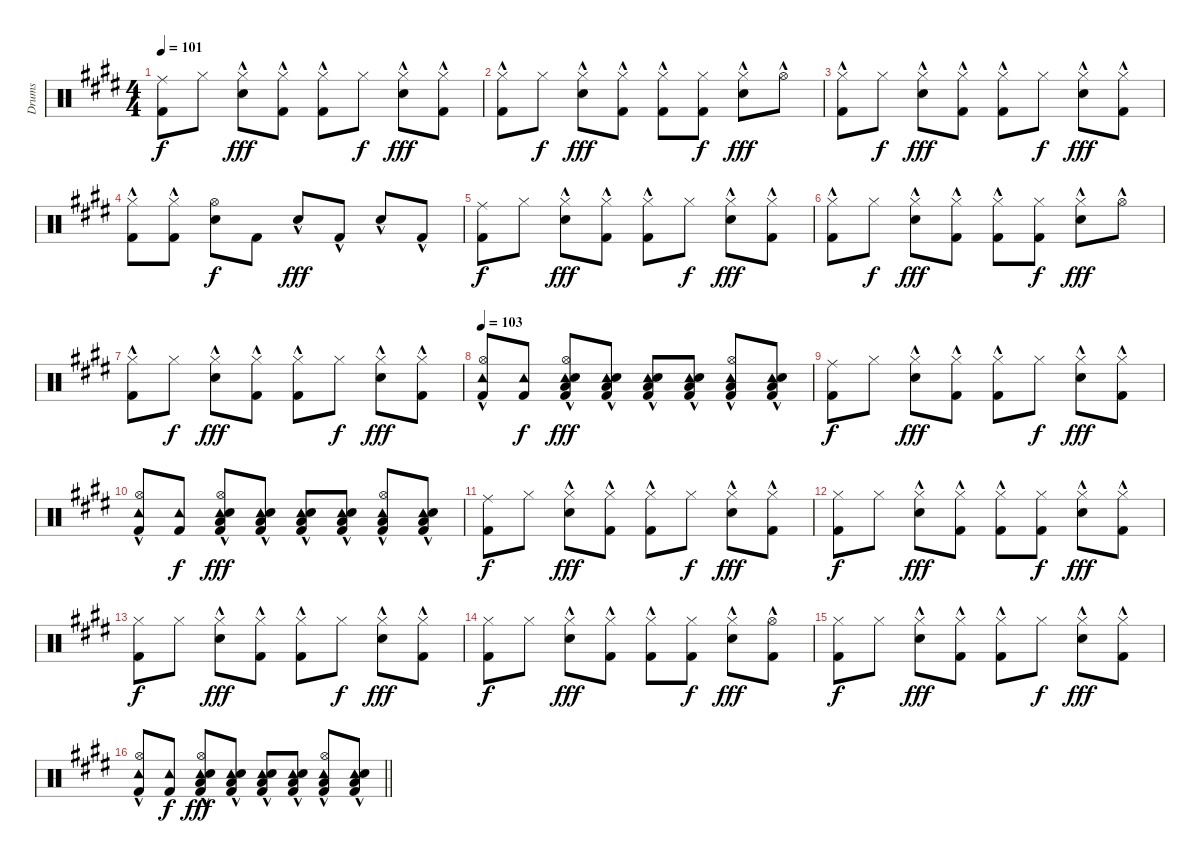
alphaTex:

\track ("Drums" "Drums") {instrument percussion}
\staff {score}
\articulation defaults
\ts (4 4)
\tempo 101
\clef neutral
\ks e
("Ride (middle)" "Kick (hit) 2").8{dy f} "Hi-Hat (closed)".8 ("Hi-Hat (closed)"{hac} "Snare (hit) 2").8{dy fff} ("Hi-Hat (closed)"{hac} "Kick (hit) 2").8 ("Hi-Hat (closed)"{hac} "Kick (hit) 2").8 "Hi-Hat (closed)".8{dy f} ("Hi-Hat (closed)"{hac} "Snare (hit) 2").8{dy fff} ("Hi-Hat (closed)"{hac} "Kick (hit) 2").8 |
("Hi-Hat (closed)"{hac} "Kick (hit) 2").8 "Hi-Hat (closed)".8{dy f} ("Hi-Hat (closed)"{hac} "Snare (hit) 2").8{dy fff} ("Hi-Hat (closed)"{hac} "Kick (hit) 2").8 ("Hi-Hat (closed)"{hac} "Kick (hit) 2").8 ("Hi-Hat (closed)" "Kick (hit) 2").8{dy f} ("Hi-Hat (closed)"{hac} "Snare (hit) 2").8{dy fff} "Hi-Hat (open)"{hac}.8 |
("Hi-Hat (closed)"{hac} "Kick (hit) 2").8 "Hi-Hat (closed)".8{dy f} ("Hi-Hat (closed)"{hac} "Snare (hit) 2").8{dy fff} ("Hi-Hat (closed)"{hac} "Kick (hit) 2").8 ("Hi-Hat (closed)"{hac} "Kick (hit) 2").8 "Hi-Hat (closed)".8{dy f} ("Hi-Hat (closed)"{hac} "Snare (hit) 2").8{dy fff} ("Hi-Hat (closed)"{hac} "Kick (hit) 2").8 |
("Hi-Hat (closed)"{hac} "Kick (hit) 2").8 ("Hi-Hat (closed)"{hac} "Kick (hit) 2").8 ("Hi-Hat (open)" "Snare (hit) 2").8{dy f} "Kick (hit) 2".8 "Snare (hit) 2"{hac}.8{dy fff} "Kick (hit) 2"{hac}.8 "Snare (hit) 2"{hac}.8 "Kick (hit) 2"{hac}.8 |
("Ride (middle)" "Kick (hit) 2").8{dy f} "Hi-Hat (closed)".8 ("Hi-Hat (closed)"{hac} "Snare (hit) 2").8{dy fff} ("Hi-Hat (closed)"{hac} "Kick (hit) 2").8 ("Hi-Hat (closed)"{hac} "Kick (hit) 2").8 "Hi-Hat (closed)".8{dy f} ("Hi-Hat (closed)"{hac} "Snare (hit) 2").8{dy fff} ("Hi-Hat (closed)"{hac} "Kick (hit) 2").8 |
("Hi-Hat (closed)"{hac} "Kick (hit) 2").8 "Hi-Hat (closed)".8{dy f} ("Hi-Hat (closed)"{hac} "Snare (hit) 2").8{dy fff} ("Hi-Hat (closed)"{hac} "Kick (hit) 2").8 ("Hi-Hat (closed)"{hac} "Kick (hit) 2").8 ("Hi-Hat (closed)" "Kick (hit) 2").8{dy f} ("Hi-Hat (closed)"{hac} "Snare (hit) 2").8{dy fff} "Hi-Hat (open)"{hac}.8 |
("Hi-Hat (closed)"{hac} "Kick (hit) 2").8 "Hi-Hat (closed)".8{dy f} ("Hi-Hat (closed)"{hac} "Snare (hit) 2").8{dy fff} ("Hi-Hat (closed)"{hac} "Kick (hit) 2").8 ("Hi-Hat (closed)"{hac} "Kick (hit) 2").8 "Hi-Hat (closed)".8{dy f} ("Hi-Hat (closed)"{hac} "Snare (hit) 2").8{dy fff} ("Hi-Hat (closed)"{hac} "Kick (hit) 2").8 |
\tempo 103
("Tambourine (hit)"{hac} "Hi-Hat (open)" "Kick (hit) 2").8 ("Tambourine (hit)" "Kick (hit) 2").8{dy f} ("Tambourine (hit)"{hac} "Hi-Hat (open)"{hac} "Snare (hit) 2"{hac} "Low Floor Tom (hit)" "Kick (hit) 2").8{dy fff} ("Tambourine (hit)"{hac} "Snare (hit) 2"{hac} "Low Floor Tom (hit)" "Kick (hit) 2").8 ("Tambourine (hit)"{hac} "Snare (hit) 2"{hac} "Low Floor Tom (hit)" "Kick (hit) 2").8 ("Tambourine (hit)"{hac} "Snare (hit) 2"{hac} "Low Floor Tom (hit)" "Kick (hit) 2").8 ("Tambourine (hit)"{hac} "Hi-Hat (open)"{hac} "Low Floor Tom (hit)" "Kick (hit) 2").8 ("Tambourine (hit)"{hac} "Snare (hit) 2"{hac} "Low Floor Tom (hit)" "Kick (hit) 2").8 |
("Ride (middle)" "Kick (hit) 2").8{dy f} "Hi-Hat (closed)".8 ("Hi-Hat (closed)"{hac} "Snare (hit) 2").8{dy fff} ("Hi-Hat (closed)"{hac} "Kick (hit) 2").8 ("Hi-Hat (closed)"{hac} "Kick (hit) 2").8 "Hi-Hat (closed)".8{dy f} ("Hi-Hat (closed)"{hac} "Snare (hit) 2").8{dy fff} ("Hi-Hat (closed)"{hac} "Kick (hit) 2").8 |
("Tambourine (hit)"{hac} "Hi-Hat (open)" "Kick (hit) 2").8 ("Tambourine (hit)" "Kick (hit) 2").8{dy f} ("Tambourine (hit)"{hac} "Hi-Hat (open)"{hac} "Snare (hit) 2"{hac} "Low Floor Tom (hit)" "Kick (hit) 2").8{dy fff} ("Tambourine (hit)"{hac} "Snare (hit) 2"{hac} "Low Floor Tom (hit)" "Kick (hit) 2").8 ("Tambourine (hit)"{hac} "Snare (hit) 2"{hac} "Low Floor Tom (hit)" "Kick (hit) 2").8 ("Tambourine (hit)"{hac} "Snare (hit) 2"{hac} "Low Floor Tom (hit)" "Kick (hit) 2").8 ("Tambourine (hit)"{hac} "Hi-Hat (open)"{hac} "Low Floor Tom (hit)" "Kick (hit) 2").8 ("Tambourine (hit)"{hac} "Snare (hit) 2"{hac} "Low Floor Tom (hit)" "Kick (hit) 2").8 |
("Ride (middle)" "Kick (hit) 2").8{dy f} "Hi-Hat (closed)".8 ("Hi-Hat (closed)"{hac} "Snare (hit) 2").8{dy fff} ("Hi-Hat (closed)"{hac} "Kick (hit) 2").8 ("Hi-Hat (closed)"{hac} "Kick (hit) 2").8 "Hi-Hat (closed)".8{dy f} ("Hi-Hat (closed)"{hac} "Snare (hit) 2").8{dy fff} ("Hi-Hat (closed)"{hac} "Kick (hit) 2").8 |
("Hi-Hat (closed)" "Kick (hit) 2").8{dy f} "Hi-Hat (closed)".8 ("Hi-Hat (closed)"{hac} "Snare (hit) 2").8{dy fff} ("Hi-Hat (closed)"{hac} "Kick (hit) 2").8 ("Hi-Hat (closed)"{hac} "Kick (hit) 2").8 ("Hi-Hat (closed)" "Kick (hit) 2").8{dy f} ("Hi-Hat (closed)"{hac} "Snare (hit) 2").8{dy fff} ("Hi-Hat (closed)"{hac} "Kick (hit) 2").8 |
("Hi-Hat (closed)" "Kick (hit) 2").8{dy f} "Hi-Hat (closed)".8 ("Hi-Hat (closed)"{hac} "Snare (hit) 2").8{dy fff} ("Hi-Hat (closed)"{hac} "Kick (hit) 2").8 ("Hi-Hat (closed)"{hac} "Kick (hit) 2").8 "Hi-Hat (closed)".8{dy f} ("Hi-Hat (closed)"{hac} "Snare (hit) 2").8{dy fff} ("Hi-Hat (closed)"{hac} "Kick (hit) 2").8 |
("Hi-Hat (closed)" "Kick (hit) 2").8{dy f} "Hi-Hat (closed)".8 ("Hi-Hat (closed)"{hac} "Snare (hit) 2").8{dy fff} ("Hi-Hat (closed)"{hac} "Kick (hit) 2").8 ("Hi-Hat (closed)"{hac} "Kick (hit) 2").8 ("Hi-Hat (closed)" "Kick (hit) 2").8{dy f} ("Hi-Hat (closed)"{hac} "Snare (hit) 2").8{dy fff} ("Hi-Hat (open)"{hac} "Kick (hit) 2").8 |
("Hi-Hat (closed)" "Kick (hit) 2").8{dy f} "Hi-Hat (closed)".8 ("Hi-Hat (closed)"{hac} "Snare (hit) 2").8{dy fff} ("Hi-Hat (closed)"{hac} "Kick (hit) 2").8 ("Hi-Hat (closed)"{hac} "Kick (hit) 2").8 "Hi-Hat (closed)".8{dy f} ("Hi-Hat (closed)"{hac} "Snare (hit) 2").8{dy fff} ("Hi-Hat (closed)"{hac} "Kick (hit) 2").8 |
\barLineRight lightlight
("Tambourine (hit)"{hac} "Hi-Hat (open)" "Kick (hit) 2").8 ("Tambourine (hit)" "Kick (hit) 2").8{dy f} ("Tambourine (hit)"{hac} "Hi-Hat (open)"{hac} "Snare (hit) 2"{hac} "Low Floor Tom (hit)" "Kick (hit) 2").8{dy fff} ("Tambourine (hit)"{hac} "Snare (hit) 2"{hac} "Low Floor Tom (hit)" "Kick (hit) 2").8 ("Tambourine (hit)"{hac} "Snare (hit) 2"{hac} "Low Floor Tom (hit)" "Kick (hit) 2").8 ("Tambourine (hit)"{hac} "Snare (hit) 2"{hac} "Low Floor Tom (hit)" "Kick (hit) 2").8 ("Tambourine (hit)"{hac} "Hi-Hat (open)"{hac} "Low Floor Tom (hit)" "Kick (hit) 2").8 ("Tambourine (hit)"{hac} "Snare (hit) 2"{hac} "Low Floor Tom (hit)" "Kick (hit) 2").8
